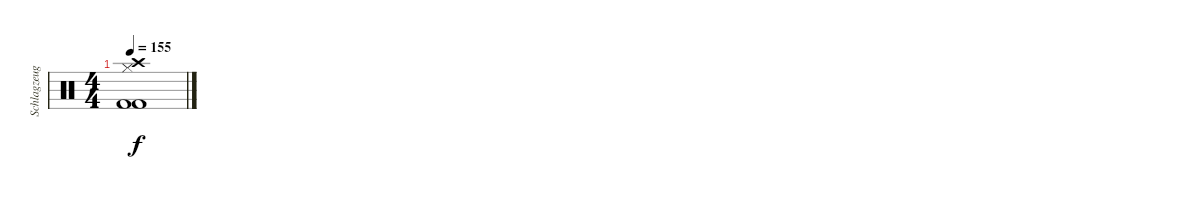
\track ("Schlagzeug" "Schlagzeug") {instrument percussion}
\staff {score}
\articulation defaults
\ts (4 4)
\tempo 155
\clef neutral
\ks c
("Hi-Hat (closed)" "Kick (hit) 2" "Kick (hit) 2" "Crash high (hit)").1{dy f}
